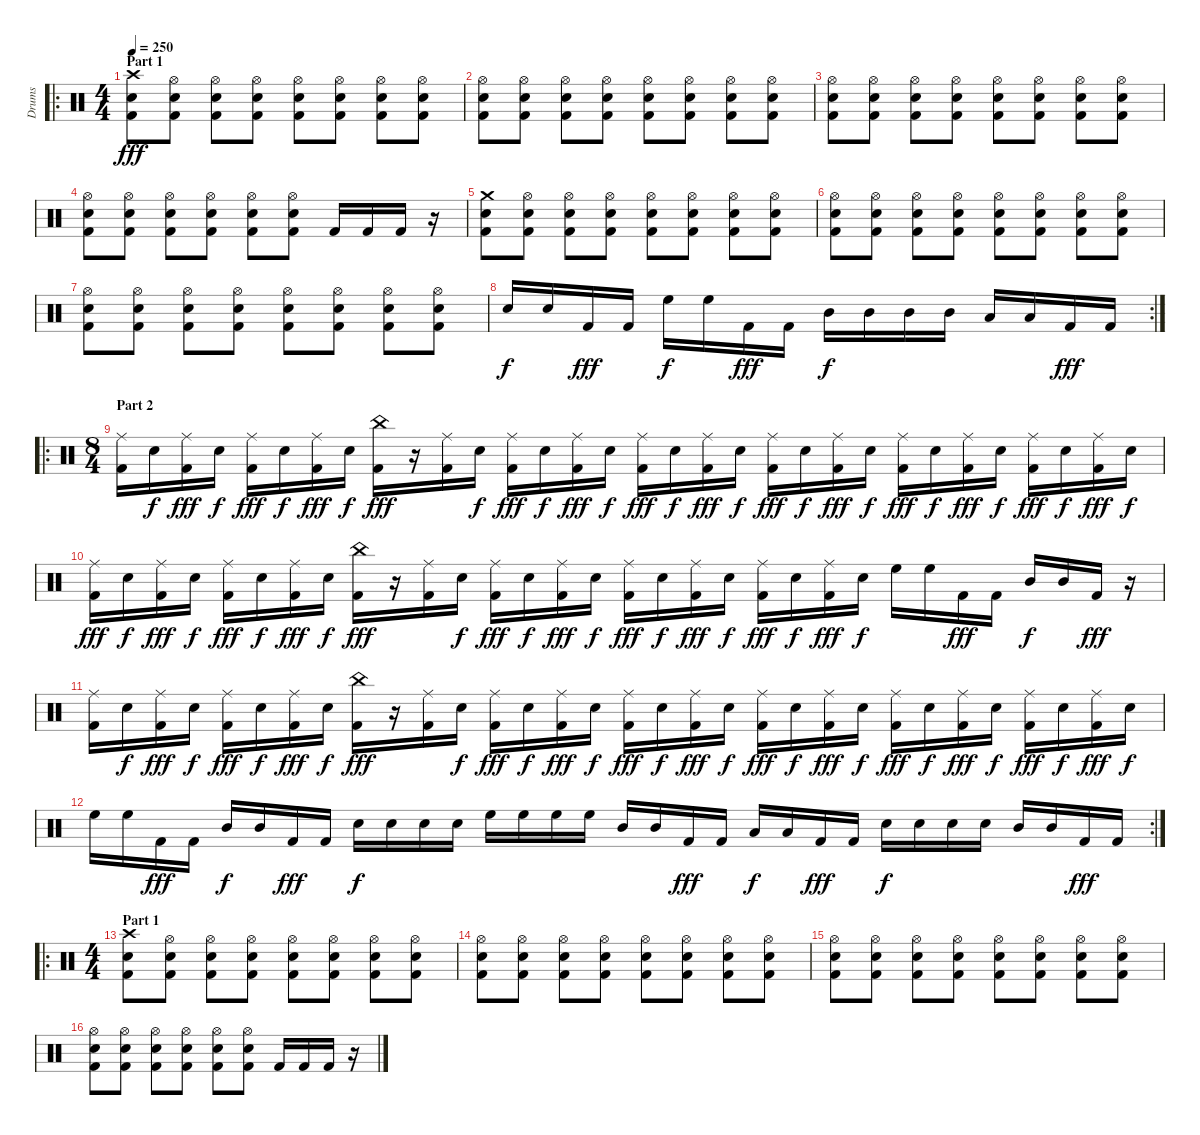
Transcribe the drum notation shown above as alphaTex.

\track ("Drums" "Drums") {instrument percussion}
\staff {score}
\articulation defaults
\ro
\ts (4 4)
\section ("" "Part 1")
\tempo 250
\clef neutral
\ks c
("Crash high (hit)" "Electric Snare (hit)" "Kick (hit) 2").8{dy fff} ("Hi-Hat (open)" "Electric Snare (hit)" "Kick (hit) 2").8 ("Hi-Hat (open)" "Electric Snare (hit)" "Kick (hit) 2").8 ("Hi-Hat (open)" "Electric Snare (hit)" "Kick (hit) 2").8 ("Hi-Hat (open)" "Electric Snare (hit)" "Kick (hit) 2").8 ("Hi-Hat (open)" "Electric Snare (hit)" "Kick (hit) 2").8 ("Hi-Hat (open)" "Electric Snare (hit)" "Kick (hit) 2").8 ("Hi-Hat (open)" "Electric Snare (hit)" "Kick (hit) 2").8 |
("Hi-Hat (open)" "Electric Snare (hit)" "Kick (hit) 2").8 ("Hi-Hat (open)" "Electric Snare (hit)" "Kick (hit) 2").8 ("Hi-Hat (open)" "Electric Snare (hit)" "Kick (hit) 2").8 ("Hi-Hat (open)" "Electric Snare (hit)" "Kick (hit) 2").8 ("Hi-Hat (open)" "Electric Snare (hit)" "Kick (hit) 2").8 ("Hi-Hat (open)" "Electric Snare (hit)" "Kick (hit) 2").8 ("Hi-Hat (open)" "Electric Snare (hit)" "Kick (hit) 2").8 ("Hi-Hat (open)" "Electric Snare (hit)" "Kick (hit) 2").8 |
("Hi-Hat (open)" "Electric Snare (hit)" "Kick (hit) 2").8 ("Hi-Hat (open)" "Electric Snare (hit)" "Kick (hit) 2").8 ("Hi-Hat (open)" "Electric Snare (hit)" "Kick (hit) 2").8 ("Hi-Hat (open)" "Electric Snare (hit)" "Kick (hit) 2").8 ("Hi-Hat (open)" "Electric Snare (hit)" "Kick (hit) 2").8 ("Hi-Hat (open)" "Electric Snare (hit)" "Kick (hit) 2").8 ("Hi-Hat (open)" "Electric Snare (hit)" "Kick (hit) 2").8 ("Hi-Hat (open)" "Electric Snare (hit)" "Kick (hit) 2").8 |
("Hi-Hat (open)" "Electric Snare (hit)" "Kick (hit) 2").8 ("Hi-Hat (open)" "Electric Snare (hit)" "Kick (hit) 2").8 ("Hi-Hat (open)" "Electric Snare (hit)" "Kick (hit) 2").8 ("Hi-Hat (open)" "Electric Snare (hit)" "Kick (hit) 2").8 ("Hi-Hat (open)" "Electric Snare (hit)" "Kick (hit) 2").8 ("Hi-Hat (open)" "Electric Snare (hit)" "Kick (hit) 2").8 "Kick (hit) 2".16 "Kick (hit) 2".16 "Kick (hit) 2".16 r.16 |
("Crash medium (hit)" "Electric Snare (hit)" "Kick (hit) 2").8 ("Hi-Hat (open)" "Electric Snare (hit)" "Kick (hit) 2").8 ("Hi-Hat (open)" "Electric Snare (hit)" "Kick (hit) 2").8 ("Hi-Hat (open)" "Electric Snare (hit)" "Kick (hit) 2").8 ("Hi-Hat (open)" "Electric Snare (hit)" "Kick (hit) 2").8 ("Hi-Hat (open)" "Electric Snare (hit)" "Kick (hit) 2").8 ("Hi-Hat (open)" "Electric Snare (hit)" "Kick (hit) 2").8 ("Hi-Hat (open)" "Electric Snare (hit)" "Kick (hit) 2").8 |
("Hi-Hat (open)" "Electric Snare (hit)" "Kick (hit) 2").8 ("Hi-Hat (open)" "Electric Snare (hit)" "Kick (hit) 2").8 ("Hi-Hat (open)" "Electric Snare (hit)" "Kick (hit) 2").8 ("Hi-Hat (open)" "Electric Snare (hit)" "Kick (hit) 2").8 ("Hi-Hat (open)" "Electric Snare (hit)" "Kick (hit) 2").8 ("Hi-Hat (open)" "Electric Snare (hit)" "Kick (hit) 2").8 ("Hi-Hat (open)" "Electric Snare (hit)" "Kick (hit) 2").8 ("Hi-Hat (open)" "Electric Snare (hit)" "Kick (hit) 2").8 |
("Hi-Hat (open)" "Electric Snare (hit)" "Kick (hit) 2").8 ("Hi-Hat (open)" "Electric Snare (hit)" "Kick (hit) 2").8 ("Hi-Hat (open)" "Electric Snare (hit)" "Kick (hit) 2").8 ("Hi-Hat (open)" "Electric Snare (hit)" "Kick (hit) 2").8 ("Hi-Hat (open)" "Electric Snare (hit)" "Kick (hit) 2").8 ("Hi-Hat (open)" "Electric Snare (hit)" "Kick (hit) 2").8 ("Hi-Hat (open)" "Electric Snare (hit)" "Kick (hit) 2").8 ("Hi-Hat (open)" "Electric Snare (hit)" "Kick (hit) 2").8 |
\rc 2 "Electric Snare (hit)".16{dy f} "Electric Snare (hit)".16 "Kick (hit) 2".16{dy fff} "Kick (hit) 2".16 "High Floor Tom (hit)".16{dy f} "High Floor Tom (hit)".16 "Kick (hit) 2".16{dy fff} "Kick (hit) 2".16 "Mid Tom (hit)".16{dy f} "Mid Tom (hit)".16 "Mid Tom (hit)".16 "Mid Tom (hit)".16 "Low Tom (hit)".16 "Low Tom (hit)".16 "Kick (hit) 2".16{dy fff} "Kick (hit) 2".16
|
\ro
\ts (8 4)
\section ("" "Part 2")
("Ride (middle)" "Kick (hit) 2").16 "Electric Snare (hit)".16{dy f} ("Ride (middle)" "Kick (hit) 2").16{dy fff} "Electric Snare (hit)".16{dy f} ("Ride (middle)" "Kick (hit) 2").16{dy fff} "Electric Snare (hit)".16{dy f} ("Ride (middle)" "Kick (hit) 2").16{dy fff} "Electric Snare (hit)".16{dy f} ("China (hit)" "Kick (hit) 2").16{dy fff} r.16 ("Ride (middle)" "Kick (hit) 2").16 "Electric Snare (hit)".16{dy f} ("Ride (middle)" "Kick (hit) 2").16{dy fff} "Electric Snare (hit)".16{dy f} ("Ride (middle)" "Kick (hit) 2").16{dy fff} "Electric Snare (hit)".16{dy f} ("Ride (middle)" "Kick (hit) 2").16{dy fff} "Electric Snare (hit)".16{dy f} ("Ride (middle)" "Kick (hit) 2").16{dy fff} "Electric Snare (hit)".16{dy f} ("Ride (middle)" "Kick (hit) 2").16{dy fff} "Electric Snare (hit)".16{dy f} ("Ride (middle)" "Kick (hit) 2").16{dy fff} "Electric Snare (hit)".16{dy f} ("Ride (middle)" "Kick (hit) 2").16{dy fff} "Electric Snare (hit)".16{dy f} ("Ride (middle)" "Kick (hit) 2").16{dy fff} "Electric Snare (hit)".16{dy f} ("Ride (middle)" "Kick (hit) 2").16{dy fff} "Electric Snare (hit)".16{dy f} ("Ride (middle)" "Kick (hit) 2").16{dy fff} "Electric Snare (hit)".16{dy f} |
("Ride (middle)" "Kick (hit) 2").16{dy fff} "Electric Snare (hit)".16{dy f} ("Ride (middle)" "Kick (hit) 2").16{dy fff} "Electric Snare (hit)".16{dy f} ("Ride (middle)" "Kick (hit) 2").16{dy fff} "Electric Snare (hit)".16{dy f} ("Ride (middle)" "Kick (hit) 2").16{dy fff} "Electric Snare (hit)".16{dy f} ("China (hit)" "Kick (hit) 2").16{dy fff} r.16 ("Ride (middle)" "Kick (hit) 2").16 "Electric Snare (hit)".16{dy f} ("Ride (middle)" "Kick (hit) 2").16{dy fff} "Electric Snare (hit)".16{dy f} ("Ride (middle)" "Kick (hit) 2").16{dy fff} "Electric Snare (hit)".16{dy f} ("Ride (middle)" "Kick (hit) 2").16{dy fff} "Electric Snare (hit)".16{dy f} ("Ride (middle)" "Kick (hit) 2").16{dy fff} "Electric Snare (hit)".16{dy f} ("Ride (middle)" "Kick (hit) 2").16{dy fff} "Electric Snare (hit)".16{dy f} ("Ride (middle)" "Kick (hit) 2").16{dy fff} "Electric Snare (hit)".16{dy f} "High Floor Tom (hit)".16 "High Floor Tom (hit)".16 "Kick (hit) 2".16{dy fff} "Kick (hit) 2".16 "Mid Tom (hit)".16{dy f} "Mid Tom (hit)".16 "Kick (hit) 2".16{dy fff} r.16 |
("Ride (middle)" "Kick (hit) 2").16 "Electric Snare (hit)".16{dy f} ("Ride (middle)" "Kick (hit) 2").16{dy fff} "Electric Snare (hit)".16{dy f} ("Ride (middle)" "Kick (hit) 2").16{dy fff} "Electric Snare (hit)".16{dy f} ("Ride (middle)" "Kick (hit) 2").16{dy fff} "Electric Snare (hit)".16{dy f} ("China (hit)" "Kick (hit) 2").16{dy fff} r.16 ("Ride (middle)" "Kick (hit) 2").16 "Electric Snare (hit)".16{dy f} ("Ride (middle)" "Kick (hit) 2").16{dy fff} "Electric Snare (hit)".16{dy f} ("Ride (middle)" "Kick (hit) 2").16{dy fff} "Electric Snare (hit)".16{dy f} ("Ride (middle)" "Kick (hit) 2").16{dy fff} "Electric Snare (hit)".16{dy f} ("Ride (middle)" "Kick (hit) 2").16{dy fff} "Electric Snare (hit)".16{dy f} ("Ride (middle)" "Kick (hit) 2").16{dy fff} "Electric Snare (hit)".16{dy f} ("Ride (middle)" "Kick (hit) 2").16{dy fff} "Electric Snare (hit)".16{dy f} ("Ride (middle)" "Kick (hit) 2").16{dy fff} "Electric Snare (hit)".16{dy f} ("Ride (middle)" "Kick (hit) 2").16{dy fff} "Electric Snare (hit)".16{dy f} ("Ride (middle)" "Kick (hit) 2").16{dy fff} "Electric Snare (hit)".16{dy f} ("Ride (middle)" "Kick (hit) 2").16{dy fff} "Electric Snare (hit)".16{dy f} |
\rc 2 "High Floor Tom (hit)".16 "High Floor Tom (hit)".16 "Kick (hit) 2".16{dy fff} "Kick (hit) 2".16 "Mid Tom (hit)".16{dy f} "Mid Tom (hit)".16 "Kick (hit) 2".16{dy fff} "Kick (hit) 2".16 "Electric Snare (hit)".16{dy f} "Electric Snare (hit)".16 "Electric Snare (hit)".16 "Electric Snare (hit)".16 "High Floor Tom (hit)".16 "High Floor Tom (hit)".16 "High Floor Tom (hit)".16 "High Floor Tom (hit)".16 "Mid Tom (hit)".16 "Mid Tom (hit)".16 "Kick (hit) 2".16{dy fff} "Kick (hit) 2".16 "Low Tom (hit)".16{dy f} "Low Tom (hit)".16 "Kick (hit) 2".16{dy fff} "Kick (hit) 2".16 "Electric Snare (hit)".16{dy f} "Electric Snare (hit)".16 "Electric Snare (hit)".16 "Electric Snare (hit)".16 "Mid Tom (hit)".16 "Mid Tom (hit)".16 "Kick (hit) 2".16{dy fff} "Kick (hit) 2".16
|
\ro
\ts (4 4)
\section ("" "Part 1")
("Crash high (hit)" "Electric Snare (hit)" "Kick (hit) 2").8 ("Hi-Hat (open)" "Electric Snare (hit)" "Kick (hit) 2").8 ("Hi-Hat (open)" "Electric Snare (hit)" "Kick (hit) 2").8 ("Hi-Hat (open)" "Electric Snare (hit)" "Kick (hit) 2").8 ("Hi-Hat (open)" "Electric Snare (hit)" "Kick (hit) 2").8 ("Hi-Hat (open)" "Electric Snare (hit)" "Kick (hit) 2").8 ("Hi-Hat (open)" "Electric Snare (hit)" "Kick (hit) 2").8 ("Hi-Hat (open)" "Electric Snare (hit)" "Kick (hit) 2").8 |
("Hi-Hat (open)" "Electric Snare (hit)" "Kick (hit) 2").8 ("Hi-Hat (open)" "Electric Snare (hit)" "Kick (hit) 2").8 ("Hi-Hat (open)" "Electric Snare (hit)" "Kick (hit) 2").8 ("Hi-Hat (open)" "Electric Snare (hit)" "Kick (hit) 2").8 ("Hi-Hat (open)" "Electric Snare (hit)" "Kick (hit) 2").8 ("Hi-Hat (open)" "Electric Snare (hit)" "Kick (hit) 2").8 ("Hi-Hat (open)" "Electric Snare (hit)" "Kick (hit) 2").8 ("Hi-Hat (open)" "Electric Snare (hit)" "Kick (hit) 2").8 |
("Hi-Hat (open)" "Electric Snare (hit)" "Kick (hit) 2").8 ("Hi-Hat (open)" "Electric Snare (hit)" "Kick (hit) 2").8 ("Hi-Hat (open)" "Electric Snare (hit)" "Kick (hit) 2").8 ("Hi-Hat (open)" "Electric Snare (hit)" "Kick (hit) 2").8 ("Hi-Hat (open)" "Electric Snare (hit)" "Kick (hit) 2").8 ("Hi-Hat (open)" "Electric Snare (hit)" "Kick (hit) 2").8 ("Hi-Hat (open)" "Electric Snare (hit)" "Kick (hit) 2").8 ("Hi-Hat (open)" "Electric Snare (hit)" "Kick (hit) 2").8 |
("Hi-Hat (open)" "Electric Snare (hit)" "Kick (hit) 2").8 ("Hi-Hat (open)" "Electric Snare (hit)" "Kick (hit) 2").8 ("Hi-Hat (open)" "Electric Snare (hit)" "Kick (hit) 2").8 ("Hi-Hat (open)" "Electric Snare (hit)" "Kick (hit) 2").8 ("Hi-Hat (open)" "Electric Snare (hit)" "Kick (hit) 2").8 ("Hi-Hat (open)" "Electric Snare (hit)" "Kick (hit) 2").8 "Kick (hit) 2".16 "Kick (hit) 2".16 "Kick (hit) 2".16 r.16
